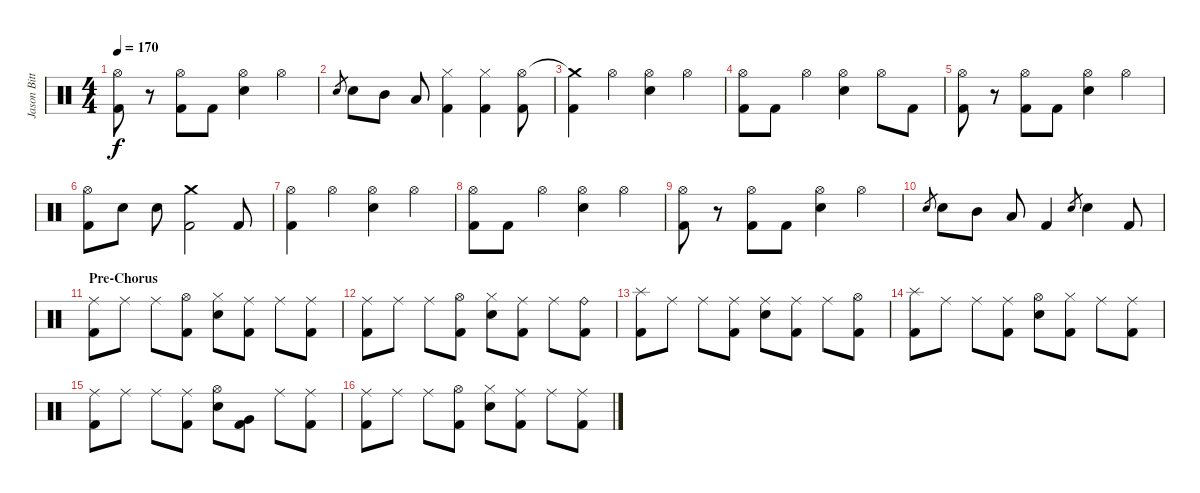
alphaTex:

\track ("Jason Bittner" "Jason Bitt") {instrument percussion}
\staff {score}
\articulation defaults
\ts (4 4)
\tempo 170
\clef neutral
\ks c
("Hi-Hat (open)" "Kick (hit) 2").8{dy f} r.8 ("Hi-Hat (open)" "Kick (hit) 2").8 "Kick (hit) 2".8 ("Hi-Hat (open)" "Electric Snare (hit)").4 "Hi-Hat (open)".4 |
"Electric Snare (hit)".8{gr} "Electric Snare (hit)".8 "Mid Tom (hit)".8 "Low Tom (hit)".8 ("Hi-Hat (closed)" "Kick (hit) 2").4 ("Hi-Hat (closed)" "Kick (hit) 2").4 ("Hi-Hat (open)" "Kick (hit) 2").8 |
("Crash medium (hit)"{t} "Kick (hit) 2").4 "Hi-Hat (open)".4 ("Hi-Hat (open)" "Electric Snare (hit)").4 "Hi-Hat (open)".4 |
("Hi-Hat (open)" "Kick (hit) 2").8 "Kick (hit) 2".8 "Hi-Hat (open)".4 ("Hi-Hat (open)" "Electric Snare (hit)").4 "Hi-Hat (open)".8 "Kick (hit) 2".8 |
("Hi-Hat (open)" "Kick (hit) 2").8 r.8 ("Hi-Hat (open)" "Kick (hit) 2").8 "Kick (hit) 2".8 ("Hi-Hat (open)" "Electric Snare (hit)").4 "Hi-Hat (open)".4 |
("Hi-Hat (open)" "Kick (hit) 2").8 "Electric Snare (hit)".8 "Electric Snare (hit)".8 ("Crash medium (hit)" "Kick (hit) 2").2 "Kick (hit) 2".8 |
("Hi-Hat (open)" "Kick (hit) 2").4 "Hi-Hat (open)".4 ("Hi-Hat (open)" "Electric Snare (hit)").4 "Hi-Hat (open)".4 |
("Hi-Hat (open)" "Kick (hit) 2").8 "Kick (hit) 2".8 "Hi-Hat (open)".4 ("Hi-Hat (open)" "Electric Snare (hit)").4 "Hi-Hat (open)".4 |
("Hi-Hat (open)" "Kick (hit) 2").8 r.8 ("Hi-Hat (open)" "Kick (hit) 2").8 "Kick (hit) 2".8 ("Hi-Hat (open)" "Electric Snare (hit)").4 "Hi-Hat (open)".4 |
"Electric Snare (hit)".8{gr} "Electric Snare (hit)".8 "Mid Tom (hit)".8 "Low Tom (hit)".8 "Kick (hit) 2".4 "Electric Snare (hit)".8{gr} "Electric Snare (hit)".4 "Kick (hit) 2".8 |
\section ("" "Pre-Chorus")
("Ride (middle)" "Kick (hit) 2").8 "Ride (middle)".8 "Ride (middle)".8 ("Hi-Hat (open)" "Kick (hit) 2").8 ("Hi-Hat (closed)" "Electric Snare (hit)").8 ("Ride (middle)" "Kick (hit) 2").8 "Ride (middle)".8 ("Ride (middle)" "Kick (hit) 2").8 |
("Ride (middle)" "Kick (hit) 2").8 "Ride (middle)".8 "Ride (middle)".8 ("Hi-Hat (open)" "Kick (hit) 2").8 ("Hi-Hat (closed)" "Electric Snare (hit)").8 ("Ride (middle)" "Kick (hit) 2").8 "Ride (middle)".8 ("Ride (bell)" "Kick (hit) 2").8 |
("Splash (hit)" "Kick (hit) 2").8 "Ride (middle)".8 "Ride (middle)".8 ("Ride (middle)" "Kick (hit) 2").8 ("Ride (middle)" "Electric Snare (hit)").8 ("Ride (middle)" "Kick (hit) 2").8 "Ride (middle)".8 ("Hi-Hat (open)" "Kick (hit) 2").8 |
("Splash (hit)" "Kick (hit) 2").8 "Ride (middle)".8 "Ride (middle)".8 ("Ride (middle)" "Kick (hit) 2").8 ("Hi-Hat (open)" "Electric Snare (hit)").8 ("Hi-Hat (closed)" "Kick (hit) 2").8 "Ride (middle)".8 ("Ride (middle)" "Kick (hit) 2").8 |
("Ride (middle)" "Kick (hit) 2").8 "Ride (middle)".8 "Ride (middle)".8 ("Ride (middle)" "Kick (hit) 2").8 ("Hi-Hat (open)" "Electric Snare (hit)").8 ("Very Low Tom (hit)" "Kick (hit) 2").8 "Ride (middle)".8 ("Ride (middle)" "Kick (hit) 2").8 |
("Ride (middle)" "Kick (hit) 2").8 "Ride (middle)".8 "Ride (middle)".8 ("Hi-Hat (open)" "Kick (hit) 2").8 ("Hi-Hat (closed)" "Electric Snare (hit)").8 ("Ride (middle)" "Kick (hit) 2").8 "Ride (middle)".8 ("Ride (middle)" "Kick (hit) 2").8
